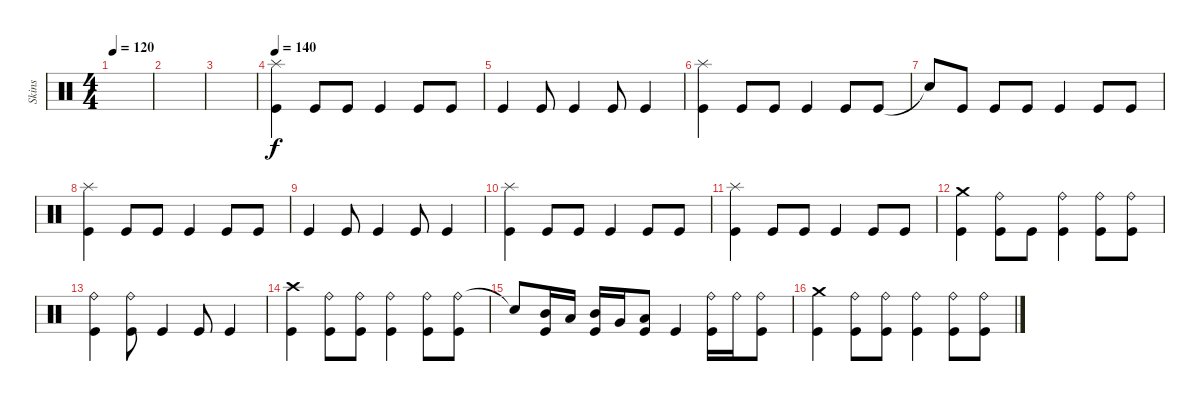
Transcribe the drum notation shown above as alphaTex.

\track ("Skins" "Skins") {instrument percussion}
\staff {score}
\articulation defaults
\ts (4 4)
\tempo 120
\clef neutral
\ks c
|
|
|
\tempo 140
("Splash (hit)" "Kick (hit)").4 "Kick (hit)".8 "Kick (hit)".8 "Kick (hit)".4 "Kick (hit)".8 "Kick (hit)".8 |
"Kick (hit)".4 "Kick (hit)".8 "Kick (hit)".4 "Kick (hit)".8 "Kick (hit)".4 |
("Splash (hit)" "Kick (hit)").4 "Kick (hit)".8 "Kick (hit)".8 "Kick (hit)".4 "Kick (hit)".8 "Kick (hit)".8 |
"Snare (hit)"{t}.8 "Kick (hit)".8 "Kick (hit)".8 "Kick (hit)".8 "Kick (hit)".4 "Kick (hit)".8 "Kick (hit)".8 |
("Splash (hit)" "Kick (hit)").4 "Kick (hit)".8 "Kick (hit)".8 "Kick (hit)".4 "Kick (hit)".8 "Kick (hit)".8 |
"Kick (hit)".4 "Kick (hit)".8 "Kick (hit)".4 "Kick (hit)".8 "Kick (hit)".4 |
("Splash (hit)" "Kick (hit)").4 "Kick (hit)".8 "Kick (hit)".8 "Kick (hit)".4 "Kick (hit)".8 "Kick (hit)".8 |
("Splash (hit)" "Kick (hit)").4 "Kick (hit)".8 "Kick (hit)".8 "Kick (hit)".4 "Kick (hit)".8 "Kick (hit)".8 |
("Crash medium (hit)" "Kick (hit)").4 ("Ride (bell)" "Kick (hit)").8 "Kick (hit)".8 ("Ride (bell)" "Kick (hit)").4 ("Ride (bell)" "Kick (hit)").8 ("Ride (bell)" "Kick (hit)").8 |
("Ride (bell)" "Kick (hit)").4 ("Ride (bell)" "Kick (hit)").8 "Kick (hit)".4 "Kick (hit)".8 "Kick (hit)".4 |
("Crash high (hit)" "Kick (hit)").4 ("Ride (bell)" "Kick (hit)").8 ("Ride (bell)" "Kick (hit)").8 ("Ride (bell)" "Kick (hit)").4 ("Ride (bell)" "Kick (hit)").8 ("Ride (bell)" "Kick (hit)").8 |
"Snare (hit)"{t}.8 ("Mid Tom (hit)" "Kick (hit)").16 "Low Tom (hit)".16 ("Mid Tom (hit)" "Kick (hit)").16 "Very Low Tom (hit)".16 ("Low Floor Tom (hit)" "Kick (hit)").8 "Kick (hit)".4 ("Ride (bell)" "Kick (hit)").16 "Ride (bell)".16 ("Ride (bell)" "Kick (hit)").8 |
("Crash medium (hit)" "Kick (hit)").4 ("Ride (bell)" "Kick (hit)").8 ("Ride (bell)" "Kick (hit)").8 ("Ride (bell)" "Kick (hit)").4 ("Ride (bell)" "Kick (hit)").8 ("Ride (bell)" "Kick (hit)").8
